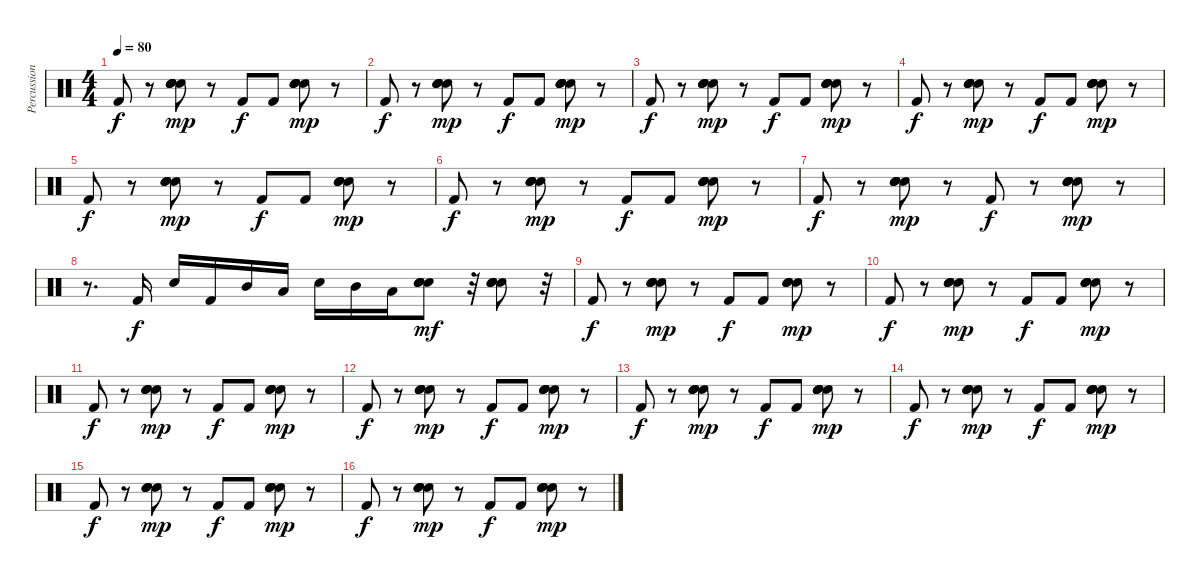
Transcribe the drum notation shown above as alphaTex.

\track ("Percussion" "Percussion") {instrument percussion}
\staff {score}
\articulation defaults
\ts (4 4)
\tempo 80
\clef neutral
\ks c "Kick (hit) 2".8{dy f}
r.8 ("Snare (hit) 2" "Snare (hit) 2" "Snare (hit) 2" "Snare (hit) 2").8{bd 60 dy mp} r.8 "Kick (hit) 2".8{dy f} "Kick (hit) 2".8 ("Snare (hit) 2" "Snare (hit) 2" "Snare (hit) 2" "Snare (hit) 2").8{bd 60 dy mp} r.8 |
"Kick (hit) 2".8{dy f} r.8 ("Snare (hit) 2" "Snare (hit) 2" "Snare (hit) 2" "Snare (hit) 2").8{bd 60 dy mp} r.8 "Kick (hit) 2".8{dy f} "Kick (hit) 2".8 ("Snare (hit) 2" "Snare (hit) 2" "Snare (hit) 2" "Snare (hit) 2").8{bd 60 dy mp} r.8 |
"Kick (hit) 2".8{dy f} r.8 ("Snare (hit) 2" "Snare (hit) 2" "Snare (hit) 2" "Snare (hit) 2").8{bd 60 dy mp} r.8 "Kick (hit) 2".8{dy f} "Kick (hit) 2".8 ("Snare (hit) 2" "Snare (hit) 2" "Snare (hit) 2" "Snare (hit) 2").8{bd 60 dy mp} r.8 |
"Kick (hit) 2".8{dy f} r.8 ("Snare (hit) 2" "Snare (hit) 2" "Snare (hit) 2" "Snare (hit) 2").8{bd 60 dy mp} r.8 "Kick (hit) 2".8{dy f} "Kick (hit) 2".8 ("Snare (hit) 2" "Snare (hit) 2" "Snare (hit) 2" "Snare (hit) 2").8{bd 60 dy mp} r.8 |
"Kick (hit) 2".8{dy f} r.8 ("Snare (hit) 2" "Snare (hit) 2" "Snare (hit) 2" "Snare (hit) 2").8{bd 60 dy mp} r.8 "Kick (hit) 2".8{dy f} "Kick (hit) 2".8 ("Snare (hit) 2" "Snare (hit) 2" "Snare (hit) 2" "Snare (hit) 2").8{bd 60 dy mp} r.8 |
"Kick (hit) 2".8{dy f} r.8 ("Snare (hit) 2" "Snare (hit) 2" "Snare (hit) 2" "Snare (hit) 2").8{bd 60 dy mp} r.8 "Kick (hit) 2".8{dy f} "Kick (hit) 2".8 ("Snare (hit) 2" "Snare (hit) 2" "Snare (hit) 2" "Snare (hit) 2").8{bd 60 dy mp} r.8 |
"Kick (hit) 2".8{dy f} r.8 ("Snare (hit) 2" "Snare (hit) 2" "Snare (hit) 2" "Snare (hit) 2").8{bd 60 dy mp} r.8 "Kick (hit) 2".8{dy f} r.8 ("Snare (hit) 2" "Snare (hit) 2" "Snare (hit) 2" "Snare (hit) 2").8{bd 60 dy mp} r.8 |
r.8{d} "Kick (hit) 2".16{dy f} "Snare (hit) 2".16 "Kick (hit) 2".16 "Mid Tom (hit)".16 "Low Tom (hit)".16 "Snare (hit) 2".16 "Mid Tom (hit)".16 "Low Tom (hit)".16 ("Snare (hit) 2" "Snare (hit) 2" "Snare (hit) 2" "Snare (hit) 2").8{bd 60 dy mf} r.32 ("Snare (hit) 2" "Snare (hit) 2" "Snare (hit) 2" "Snare (hit) 2").8{bd 60} r.32 |
"Kick (hit) 2".8{dy f} r.8 ("Snare (hit) 2" "Snare (hit) 2" "Snare (hit) 2" "Snare (hit) 2").8{bd 60 dy mp} r.8 "Kick (hit) 2".8{dy f} "Kick (hit) 2".8 ("Snare (hit) 2" "Snare (hit) 2" "Snare (hit) 2" "Snare (hit) 2").8{bd 60 dy mp} r.8 |
"Kick (hit) 2".8{dy f} r.8 ("Snare (hit) 2" "Snare (hit) 2" "Snare (hit) 2" "Snare (hit) 2").8{bd 60 dy mp} r.8 "Kick (hit) 2".8{dy f} "Kick (hit) 2".8 ("Snare (hit) 2" "Snare (hit) 2" "Snare (hit) 2" "Snare (hit) 2").8{bd 60 dy mp} r.8 |
"Kick (hit) 2".8{dy f} r.8 ("Snare (hit) 2" "Snare (hit) 2" "Snare (hit) 2" "Snare (hit) 2").8{bd 60 dy mp} r.8 "Kick (hit) 2".8{dy f} "Kick (hit) 2".8 ("Snare (hit) 2" "Snare (hit) 2" "Snare (hit) 2" "Snare (hit) 2").8{bd 60 dy mp} r.8 |
"Kick (hit) 2".8{dy f} r.8 ("Snare (hit) 2" "Snare (hit) 2" "Snare (hit) 2" "Snare (hit) 2").8{bd 60 dy mp} r.8 "Kick (hit) 2".8{dy f} "Kick (hit) 2".8 ("Snare (hit) 2" "Snare (hit) 2" "Snare (hit) 2" "Snare (hit) 2").8{bd 60 dy mp} r.8 |
"Kick (hit) 2".8{dy f} r.8 ("Snare (hit) 2" "Snare (hit) 2" "Snare (hit) 2" "Snare (hit) 2").8{bd 60 dy mp} r.8 "Kick (hit) 2".8{dy f} "Kick (hit) 2".8 ("Snare (hit) 2" "Snare (hit) 2" "Snare (hit) 2" "Snare (hit) 2").8{bd 60 dy mp} r.8 |
"Kick (hit) 2".8{dy f} r.8 ("Snare (hit) 2" "Snare (hit) 2" "Snare (hit) 2" "Snare (hit) 2").8{bd 60 dy mp} r.8 "Kick (hit) 2".8{dy f} "Kick (hit) 2".8 ("Snare (hit) 2" "Snare (hit) 2" "Snare (hit) 2" "Snare (hit) 2").8{bd 60 dy mp} r.8 |
"Kick (hit) 2".8{dy f} r.8 ("Snare (hit) 2" "Snare (hit) 2" "Snare (hit) 2" "Snare (hit) 2").8{bd 60 dy mp} r.8 "Kick (hit) 2".8{dy f} "Kick (hit) 2".8 ("Snare (hit) 2" "Snare (hit) 2" "Snare (hit) 2" "Snare (hit) 2").8{bd 60 dy mp} r.8 |
"Kick (hit) 2".8{dy f} r.8 ("Snare (hit) 2" "Snare (hit) 2" "Snare (hit) 2" "Snare (hit) 2").8{bd 60 dy mp} r.8 "Kick (hit) 2".8{dy f} "Kick (hit) 2".8 ("Snare (hit) 2" "Snare (hit) 2" "Snare (hit) 2" "Snare (hit) 2").8{bd 60 dy mp} r.8
